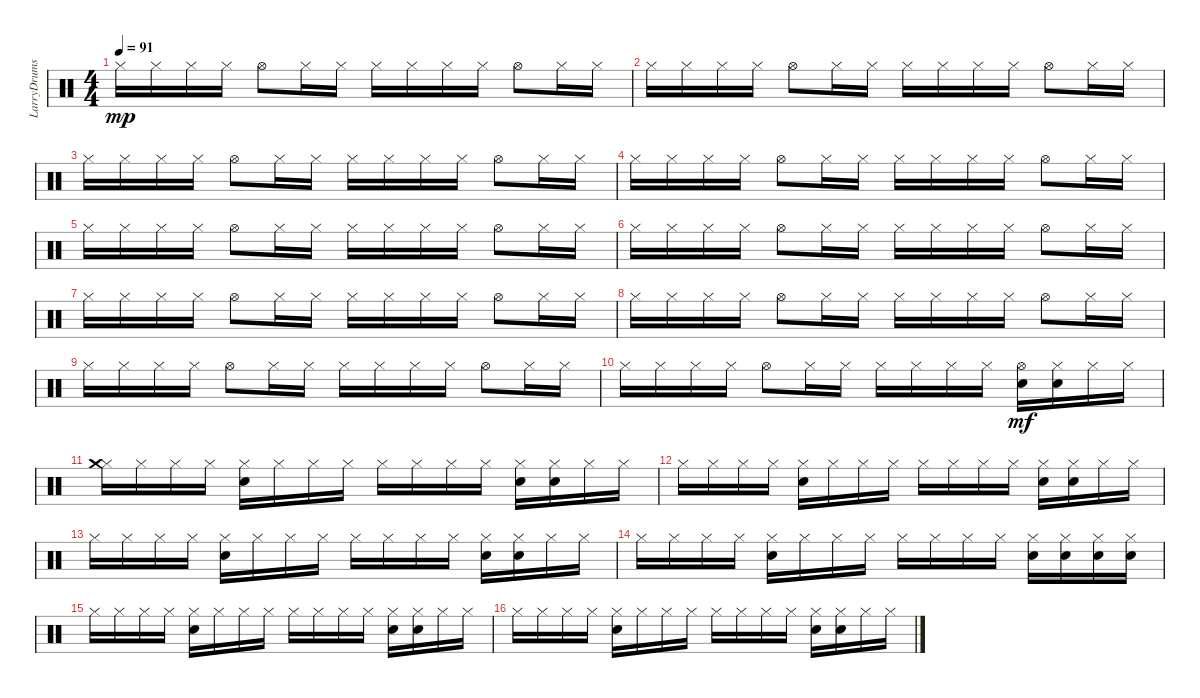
\track ("LarryDrums2" "LarryDrums") {instrument percussion}
\staff {score}
\articulation defaults
\ts (4 4)
\tempo 91
\clef neutral
\ks c "Hi-Hat (closed)".16{dy mp} "Hi-Hat (closed)".16 "Hi-Hat (closed)".16 "Hi-Hat (closed)".16 "Hi-Hat (open)".8 "Hi-Hat (closed)".16 "Hi-Hat (closed)".16 "Hi-Hat (closed)".16 "Hi-Hat (closed)".16 "Hi-Hat (closed)".16 "Hi-Hat (closed)".16 "Hi-Hat (open)".8 "Hi-Hat (closed)".16 "Hi-Hat (closed)".16
|
"Hi-Hat (closed)".16 "Hi-Hat (closed)".16 "Hi-Hat (closed)".16 "Hi-Hat (closed)".16 "Hi-Hat (open)".8 "Hi-Hat (closed)".16 "Hi-Hat (closed)".16 "Hi-Hat (closed)".16 "Hi-Hat (closed)".16 "Hi-Hat (closed)".16 "Hi-Hat (closed)".16 "Hi-Hat (open)".8 "Hi-Hat (closed)".16 "Hi-Hat (closed)".16 |
"Hi-Hat (closed)".16 "Hi-Hat (closed)".16 "Hi-Hat (closed)".16 "Hi-Hat (closed)".16 "Hi-Hat (open)".8 "Hi-Hat (closed)".16 "Hi-Hat (closed)".16 "Hi-Hat (closed)".16 "Hi-Hat (closed)".16 "Hi-Hat (closed)".16 "Hi-Hat (closed)".16 "Hi-Hat (open)".8 "Hi-Hat (closed)".16 "Hi-Hat (closed)".16 |
"Hi-Hat (closed)".16 "Hi-Hat (closed)".16 "Hi-Hat (closed)".16 "Hi-Hat (closed)".16 "Hi-Hat (open)".8 "Hi-Hat (closed)".16 "Hi-Hat (closed)".16 "Hi-Hat (closed)".16 "Hi-Hat (closed)".16 "Hi-Hat (closed)".16 "Hi-Hat (closed)".16 "Hi-Hat (open)".8 "Hi-Hat (closed)".16 "Hi-Hat (closed)".16 |
"Hi-Hat (closed)".16 "Hi-Hat (closed)".16 "Hi-Hat (closed)".16 "Hi-Hat (closed)".16 "Hi-Hat (open)".8 "Hi-Hat (closed)".16 "Hi-Hat (closed)".16 "Hi-Hat (closed)".16 "Hi-Hat (closed)".16 "Hi-Hat (closed)".16 "Hi-Hat (closed)".16 "Hi-Hat (open)".8 "Hi-Hat (closed)".16 "Hi-Hat (closed)".16 |
"Hi-Hat (closed)".16 "Hi-Hat (closed)".16 "Hi-Hat (closed)".16 "Hi-Hat (closed)".16 "Hi-Hat (open)".8 "Hi-Hat (closed)".16 "Hi-Hat (closed)".16 "Hi-Hat (closed)".16 "Hi-Hat (closed)".16 "Hi-Hat (closed)".16 "Hi-Hat (closed)".16 "Hi-Hat (open)".8 "Hi-Hat (closed)".16 "Hi-Hat (closed)".16 |
"Hi-Hat (closed)".16 "Hi-Hat (closed)".16 "Hi-Hat (closed)".16 "Hi-Hat (closed)".16 "Hi-Hat (open)".8 "Hi-Hat (closed)".16 "Hi-Hat (closed)".16 "Hi-Hat (closed)".16 "Hi-Hat (closed)".16 "Hi-Hat (closed)".16 "Hi-Hat (closed)".16 "Hi-Hat (open)".8 "Hi-Hat (closed)".16 "Hi-Hat (closed)".16 |
"Hi-Hat (closed)".16 "Hi-Hat (closed)".16 "Hi-Hat (closed)".16 "Hi-Hat (closed)".16 "Hi-Hat (open)".8 "Hi-Hat (closed)".16 "Hi-Hat (closed)".16 "Hi-Hat (closed)".16 "Hi-Hat (closed)".16 "Hi-Hat (closed)".16 "Hi-Hat (closed)".16 "Hi-Hat (open)".8 "Hi-Hat (closed)".16 "Hi-Hat (closed)".16 |
"Hi-Hat (closed)".16 "Hi-Hat (closed)".16 "Hi-Hat (closed)".16 "Hi-Hat (closed)".16 "Hi-Hat (open)".8 "Hi-Hat (closed)".16 "Hi-Hat (closed)".16 "Hi-Hat (closed)".16 "Hi-Hat (closed)".16 "Hi-Hat (closed)".16 "Hi-Hat (closed)".16 "Hi-Hat (open)".8 "Hi-Hat (closed)".16 "Hi-Hat (closed)".16 |
"Hi-Hat (closed)".16 "Hi-Hat (closed)".16 "Hi-Hat (closed)".16 "Hi-Hat (closed)".16 "Hi-Hat (open)".8 "Hi-Hat (closed)".16 "Hi-Hat (closed)".16 "Hi-Hat (closed)".16 "Hi-Hat (closed)".16 "Hi-Hat (closed)".16 "Hi-Hat (closed)".16 ("Hi-Hat (open)" "Electric Snare (hit)").16{dy mf} ("Hi-Hat (closed)" "Electric Snare (hit)").16 "Hi-Hat (closed)".16 "Hi-Hat (closed)".16 |
("Hi-Hat (closed)" "Crash medium (hit)").16 "Hi-Hat (closed)".16 "Hi-Hat (closed)".16 "Hi-Hat (closed)".16 ("Hi-Hat (closed)" "Electric Snare (hit)").16 "Hi-Hat (closed)".16 "Hi-Hat (closed)".16 "Hi-Hat (closed)".16 "Hi-Hat (closed)".16 "Hi-Hat (closed)".16 "Hi-Hat (closed)".16 "Hi-Hat (closed)".16 ("Hi-Hat (closed)" "Electric Snare (hit)").16 ("Hi-Hat (closed)" "Electric Snare (hit)").16 "Hi-Hat (closed)".16 "Hi-Hat (closed)".16 |
"Hi-Hat (closed)".16 "Hi-Hat (closed)".16 "Hi-Hat (closed)".16 "Hi-Hat (closed)".16 ("Hi-Hat (closed)" "Electric Snare (hit)").16 "Hi-Hat (closed)".16 "Hi-Hat (closed)".16 "Hi-Hat (closed)".16 "Hi-Hat (closed)".16 "Hi-Hat (closed)".16 "Hi-Hat (closed)".16 "Hi-Hat (closed)".16 ("Hi-Hat (closed)" "Electric Snare (hit)").16 ("Hi-Hat (closed)" "Electric Snare (hit)").16 "Hi-Hat (closed)".16 "Hi-Hat (closed)".16 |
"Hi-Hat (closed)".16 "Hi-Hat (closed)".16 "Hi-Hat (closed)".16 "Hi-Hat (closed)".16 ("Hi-Hat (closed)" "Electric Snare (hit)").16 "Hi-Hat (closed)".16 "Hi-Hat (closed)".16 "Hi-Hat (closed)".16 "Hi-Hat (closed)".16 "Hi-Hat (closed)".16 "Hi-Hat (closed)".16 "Hi-Hat (closed)".16 ("Hi-Hat (closed)" "Electric Snare (hit)").16 ("Hi-Hat (closed)" "Electric Snare (hit)").16 "Hi-Hat (closed)".16 "Hi-Hat (closed)".16 |
"Hi-Hat (closed)".16 "Hi-Hat (closed)".16 "Hi-Hat (closed)".16 "Hi-Hat (closed)".16 ("Hi-Hat (closed)" "Electric Snare (hit)").16 "Hi-Hat (closed)".16 "Hi-Hat (closed)".16 "Hi-Hat (closed)".16 "Hi-Hat (closed)".16 "Hi-Hat (closed)".16 "Hi-Hat (closed)".16 "Hi-Hat (closed)".16 ("Hi-Hat (closed)" "Electric Snare (hit)").16 ("Hi-Hat (closed)" "Electric Snare (hit)").16 ("Hi-Hat (closed)" "Electric Snare (hit)").16 ("Hi-Hat (closed)" "Electric Snare (hit)").16 |
"Hi-Hat (closed)".16 "Hi-Hat (closed)".16 "Hi-Hat (closed)".16 "Hi-Hat (closed)".16 ("Hi-Hat (closed)" "Electric Snare (hit)").16 "Hi-Hat (closed)".16 "Hi-Hat (closed)".16 "Hi-Hat (closed)".16 "Hi-Hat (closed)".16 "Hi-Hat (closed)".16 "Hi-Hat (closed)".16 "Hi-Hat (closed)".16 ("Hi-Hat (closed)" "Electric Snare (hit)").16 ("Hi-Hat (closed)" "Electric Snare (hit)").16 "Hi-Hat (closed)".16 "Hi-Hat (closed)".16 |
"Hi-Hat (closed)".16 "Hi-Hat (closed)".16 "Hi-Hat (closed)".16 "Hi-Hat (closed)".16 ("Hi-Hat (closed)" "Electric Snare (hit)").16 "Hi-Hat (closed)".16 "Hi-Hat (closed)".16 "Hi-Hat (closed)".16 "Hi-Hat (closed)".16 "Hi-Hat (closed)".16 "Hi-Hat (closed)".16 "Hi-Hat (closed)".16 ("Hi-Hat (closed)" "Electric Snare (hit)").16 ("Hi-Hat (closed)" "Electric Snare (hit)").16 "Hi-Hat (closed)".16 "Hi-Hat (closed)".16
